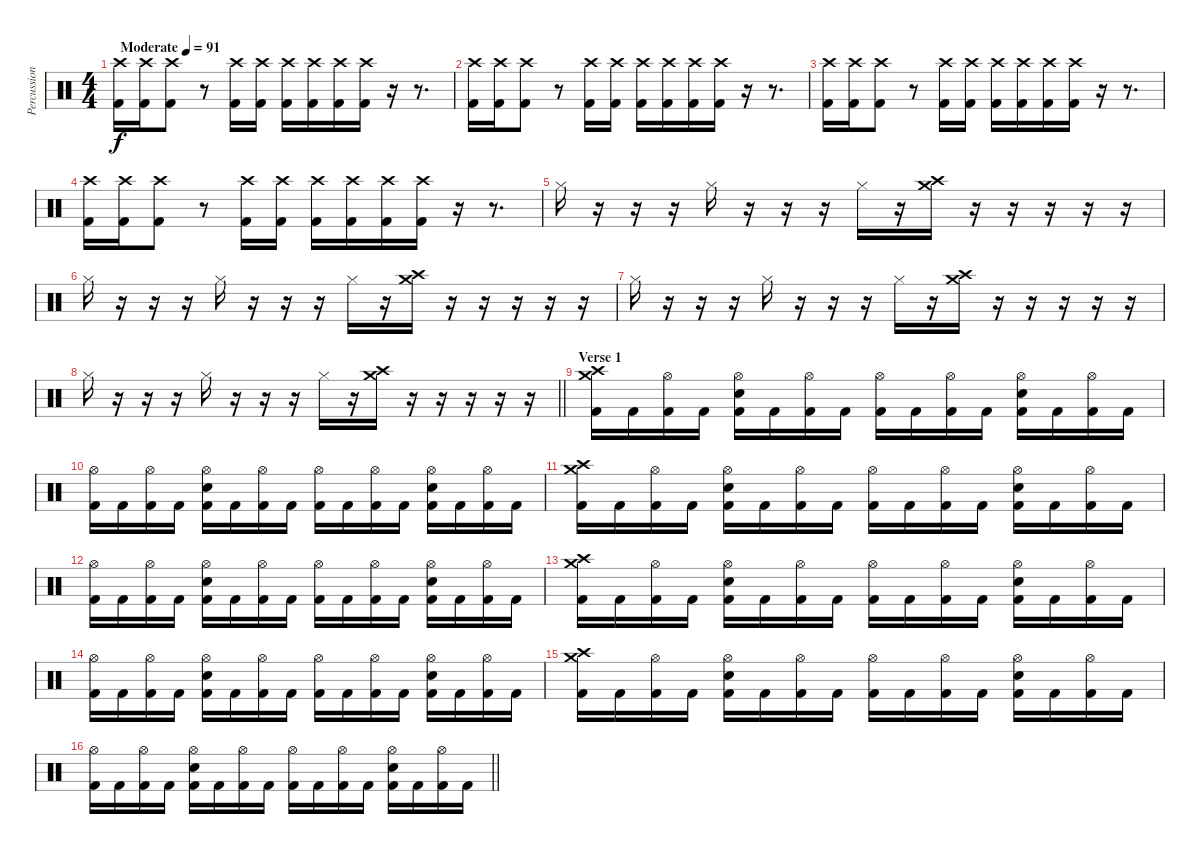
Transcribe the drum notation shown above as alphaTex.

\track ("Percussion" "Percussion") {instrument percussion}
\staff {score}
\articulation defaults
\ts (4 4)
\tempo (91 "Moderate")
\clef neutral
\ks c
("Crash high (hit)" "Kick (hit) 2").16{dy f} ("Crash high (hit)" "Kick (hit) 2").16 ("Crash high (hit)" "Kick (hit) 2").8 r.8 ("Crash high (hit)" "Kick (hit) 2").16 ("Crash high (hit)" "Kick (hit) 2").16 ("Crash high (hit)" "Kick (hit) 2").16 ("Crash high (hit)" "Kick (hit) 2").16 ("Crash high (hit)" "Kick (hit) 2").16 ("Crash high (hit)" "Kick (hit) 2").16 r.16 r.8{d} |
("Crash high (hit)" "Kick (hit) 2").16 ("Crash high (hit)" "Kick (hit) 2").16 ("Crash high (hit)" "Kick (hit) 2").8 r.8 ("Crash high (hit)" "Kick (hit) 2").16 ("Crash high (hit)" "Kick (hit) 2").16 ("Crash high (hit)" "Kick (hit) 2").16 ("Crash high (hit)" "Kick (hit) 2").16 ("Crash high (hit)" "Kick (hit) 2").16 ("Crash high (hit)" "Kick (hit) 2").16 r.16 r.8{d} |
("Crash high (hit)" "Kick (hit) 2").16 ("Crash high (hit)" "Kick (hit) 2").16 ("Crash high (hit)" "Kick (hit) 2").8 r.8 ("Crash high (hit)" "Kick (hit) 2").16 ("Crash high (hit)" "Kick (hit) 2").16 ("Crash high (hit)" "Kick (hit) 2").16 ("Crash high (hit)" "Kick (hit) 2").16 ("Crash high (hit)" "Kick (hit) 2").16 ("Crash high (hit)" "Kick (hit) 2").16 r.16 r.8{d} |
("Crash high (hit)" "Kick (hit) 2").16 ("Crash high (hit)" "Kick (hit) 2").16 ("Crash high (hit)" "Kick (hit) 2").8 r.8 ("Crash high (hit)" "Kick (hit) 2").16 ("Crash high (hit)" "Kick (hit) 2").16 ("Crash high (hit)" "Kick (hit) 2").16 ("Crash high (hit)" "Kick (hit) 2").16 ("Crash high (hit)" "Kick (hit) 2").16 ("Crash high (hit)" "Kick (hit) 2").16 r.16 r.8{d} |
"Hi-Hat (closed)".16 r.16 r.16 r.16 "Hi-Hat (closed)".16 r.16 r.16 r.16 "Hi-Hat (closed)".16 r.16 ("Crash high (hit)" "Crash medium (hit)").16 r.16 r.16 r.16 r.16 r.16 |
"Hi-Hat (closed)".16 r.16 r.16 r.16 "Hi-Hat (closed)".16 r.16 r.16 r.16 "Hi-Hat (closed)".16 r.16 ("Crash high (hit)" "Crash medium (hit)").16 r.16 r.16 r.16 r.16 r.16 |
"Hi-Hat (closed)".16 r.16 r.16 r.16 "Hi-Hat (closed)".16 r.16 r.16 r.16 "Hi-Hat (closed)".16 r.16 ("Crash high (hit)" "Crash medium (hit)").16 r.16 r.16 r.16 r.16 r.16 |
\barLineRight lightlight "Hi-Hat (closed)".16
r.16 r.16 r.16 "Hi-Hat (closed)".16 r.16 r.16 r.16 "Hi-Hat (closed)".16 r.16 ("Crash high (hit)" "Crash medium (hit)").16 r.16 r.16 r.16 r.16 r.16 |
\section ("" "Verse 1")
("Crash high (hit)" "Crash medium (hit)" "Kick (hit) 2").16 "Kick (hit) 2".16 ("Hi-Hat (open)" "Kick (hit) 2").16 "Kick (hit) 2".16 ("Hi-Hat (open)" "Electric Snare (hit)" "Kick (hit) 2").16 "Kick (hit) 2".16 ("Hi-Hat (open)" "Kick (hit) 2").16 "Kick (hit) 2".16 ("Hi-Hat (open)" "Kick (hit) 2").16 "Kick (hit) 2".16 ("Hi-Hat (open)" "Kick (hit) 2").16 "Kick (hit) 2".16 ("Hi-Hat (open)" "Electric Snare (hit)" "Kick (hit) 2").16 "Kick (hit) 2".16 ("Hi-Hat (open)" "Kick (hit) 2").16 "Kick (hit) 2".16 |
("Hi-Hat (open)" "Kick (hit) 2").16 "Kick (hit) 2".16 ("Hi-Hat (open)" "Kick (hit) 2").16 "Kick (hit) 2".16 ("Hi-Hat (open)" "Electric Snare (hit)" "Kick (hit) 2").16 "Kick (hit) 2".16 ("Hi-Hat (open)" "Kick (hit) 2").16 "Kick (hit) 2".16 ("Hi-Hat (open)" "Kick (hit) 2").16 "Kick (hit) 2".16 ("Hi-Hat (open)" "Kick (hit) 2").16 "Kick (hit) 2".16 ("Hi-Hat (open)" "Electric Snare (hit)" "Kick (hit) 2").16 "Kick (hit) 2".16 ("Hi-Hat (open)" "Kick (hit) 2").16 "Kick (hit) 2".16 |
("Crash high (hit)" "Crash medium (hit)" "Kick (hit) 2").16 "Kick (hit) 2".16 ("Hi-Hat (open)" "Kick (hit) 2").16 "Kick (hit) 2".16 ("Hi-Hat (open)" "Electric Snare (hit)" "Kick (hit) 2").16 "Kick (hit) 2".16 ("Hi-Hat (open)" "Kick (hit) 2").16 "Kick (hit) 2".16 ("Hi-Hat (open)" "Kick (hit) 2").16 "Kick (hit) 2".16 ("Hi-Hat (open)" "Kick (hit) 2").16 "Kick (hit) 2".16 ("Hi-Hat (open)" "Electric Snare (hit)" "Kick (hit) 2").16 "Kick (hit) 2".16 ("Hi-Hat (open)" "Kick (hit) 2").16 "Kick (hit) 2".16 |
("Hi-Hat (open)" "Kick (hit) 2").16 "Kick (hit) 2".16 ("Hi-Hat (open)" "Kick (hit) 2").16 "Kick (hit) 2".16 ("Hi-Hat (open)" "Electric Snare (hit)" "Kick (hit) 2").16 "Kick (hit) 2".16 ("Hi-Hat (open)" "Kick (hit) 2").16 "Kick (hit) 2".16 ("Hi-Hat (open)" "Kick (hit) 2").16 "Kick (hit) 2".16 ("Hi-Hat (open)" "Kick (hit) 2").16 "Kick (hit) 2".16 ("Hi-Hat (open)" "Electric Snare (hit)" "Kick (hit) 2").16 "Kick (hit) 2".16 ("Hi-Hat (open)" "Kick (hit) 2").16 "Kick (hit) 2".16 |
("Crash high (hit)" "Crash medium (hit)" "Kick (hit) 2").16 "Kick (hit) 2".16 ("Hi-Hat (open)" "Kick (hit) 2").16 "Kick (hit) 2".16 ("Hi-Hat (open)" "Electric Snare (hit)" "Kick (hit) 2").16 "Kick (hit) 2".16 ("Hi-Hat (open)" "Kick (hit) 2").16 "Kick (hit) 2".16 ("Hi-Hat (open)" "Kick (hit) 2").16 "Kick (hit) 2".16 ("Hi-Hat (open)" "Kick (hit) 2").16 "Kick (hit) 2".16 ("Hi-Hat (open)" "Electric Snare (hit)" "Kick (hit) 2").16 "Kick (hit) 2".16 ("Hi-Hat (open)" "Kick (hit) 2").16 "Kick (hit) 2".16 |
("Hi-Hat (open)" "Kick (hit) 2").16 "Kick (hit) 2".16 ("Hi-Hat (open)" "Kick (hit) 2").16 "Kick (hit) 2".16 ("Hi-Hat (open)" "Electric Snare (hit)" "Kick (hit) 2").16 "Kick (hit) 2".16 ("Hi-Hat (open)" "Kick (hit) 2").16 "Kick (hit) 2".16 ("Hi-Hat (open)" "Kick (hit) 2").16 "Kick (hit) 2".16 ("Hi-Hat (open)" "Kick (hit) 2").16 "Kick (hit) 2".16 ("Hi-Hat (open)" "Electric Snare (hit)" "Kick (hit) 2").16 "Kick (hit) 2".16 ("Hi-Hat (open)" "Kick (hit) 2").16 "Kick (hit) 2".16 |
("Crash high (hit)" "Crash medium (hit)" "Kick (hit) 2").16 "Kick (hit) 2".16 ("Hi-Hat (open)" "Kick (hit) 2").16 "Kick (hit) 2".16 ("Hi-Hat (open)" "Electric Snare (hit)" "Kick (hit) 2").16 "Kick (hit) 2".16 ("Hi-Hat (open)" "Kick (hit) 2").16 "Kick (hit) 2".16 ("Hi-Hat (open)" "Kick (hit) 2").16 "Kick (hit) 2".16 ("Hi-Hat (open)" "Kick (hit) 2").16 "Kick (hit) 2".16 ("Hi-Hat (open)" "Electric Snare (hit)" "Kick (hit) 2").16 "Kick (hit) 2".16 ("Hi-Hat (open)" "Kick (hit) 2").16 "Kick (hit) 2".16 |
\barLineRight lightlight
("Hi-Hat (open)" "Kick (hit) 2").16 "Kick (hit) 2".16 ("Hi-Hat (open)" "Kick (hit) 2").16 "Kick (hit) 2".16 ("Hi-Hat (open)" "Electric Snare (hit)" "Kick (hit) 2").16 "Kick (hit) 2".16 ("Hi-Hat (open)" "Kick (hit) 2").16 "Kick (hit) 2".16 ("Hi-Hat (open)" "Kick (hit) 2").16 "Kick (hit) 2".16 ("Hi-Hat (open)" "Kick (hit) 2").16 "Kick (hit) 2".16 ("Hi-Hat (open)" "Electric Snare (hit)" "Kick (hit) 2").16 "Kick (hit) 2".16 ("Hi-Hat (open)" "Kick (hit) 2").16 "Kick (hit) 2".16
